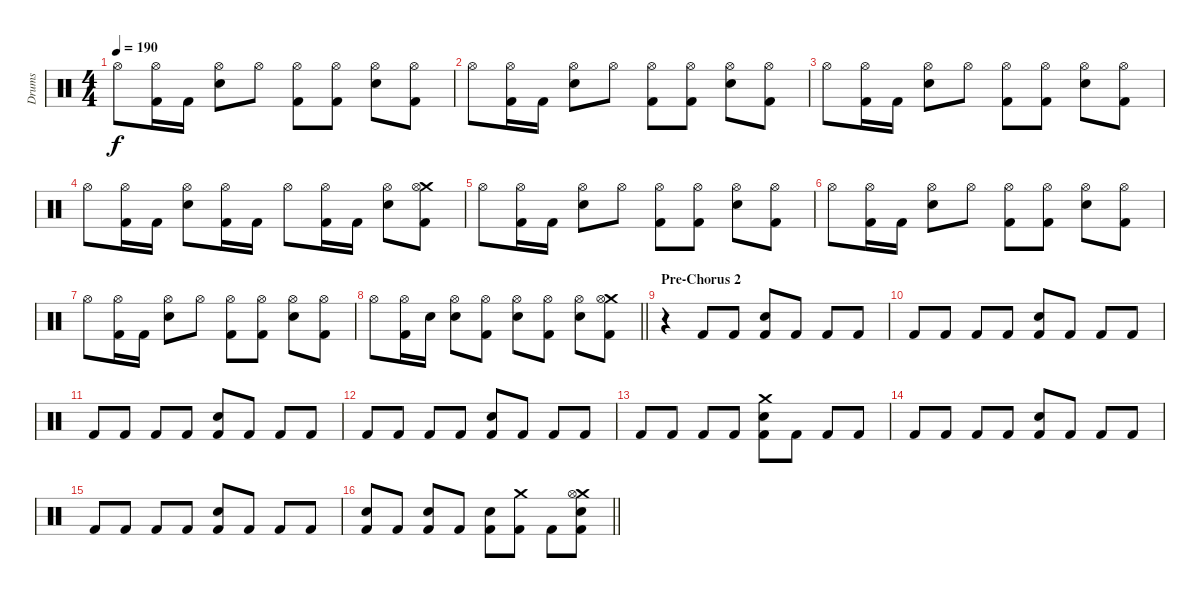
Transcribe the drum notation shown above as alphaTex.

\track ("Drums" "Drums") {instrument percussion}
\staff {score}
\articulation defaults
\ts (4 4)
\tempo 190
\clef neutral
\ks c "Hi-Hat (open)".8{dy f}
("Hi-Hat (open)" "Kick (hit) 2").16 "Kick (hit) 2".16 ("Hi-Hat (open)" "Electric Snare (hit)").8 "Hi-Hat (open)".8 ("Hi-Hat (open)" "Kick (hit) 2").8 ("Hi-Hat (open)" "Kick (hit) 2").8 ("Hi-Hat (open)" "Electric Snare (hit)").8 ("Hi-Hat (open)" "Kick (hit) 2").8 |
"Hi-Hat (open)".8 ("Hi-Hat (open)" "Kick (hit) 2").16 "Kick (hit) 2".16 ("Hi-Hat (open)" "Electric Snare (hit)").8 "Hi-Hat (open)".8 ("Hi-Hat (open)" "Kick (hit) 2").8 ("Hi-Hat (open)" "Kick (hit) 2").8 ("Hi-Hat (open)" "Electric Snare (hit)").8 ("Hi-Hat (open)" "Kick (hit) 2").8 |
"Hi-Hat (open)".8 ("Hi-Hat (open)" "Kick (hit) 2").16 "Kick (hit) 2".16 ("Hi-Hat (open)" "Electric Snare (hit)").8 "Hi-Hat (open)".8 ("Hi-Hat (open)" "Kick (hit) 2").8 ("Hi-Hat (open)" "Kick (hit) 2").8 ("Hi-Hat (open)" "Electric Snare (hit)").8 ("Hi-Hat (open)" "Kick (hit) 2").8 |
"Hi-Hat (open)".8 ("Hi-Hat (open)" "Kick (hit) 2").16 "Kick (hit) 2".16 ("Hi-Hat (open)" "Electric Snare (hit)").8 ("Hi-Hat (open)" "Kick (hit) 2").16 "Kick (hit) 2".16 "Hi-Hat (open)".8 ("Hi-Hat (open)" "Kick (hit) 2").16 "Kick (hit) 2".16 ("Hi-Hat (open)" "Electric Snare (hit)").8 ("Crash medium (hit)" "Hi-Hat (open)" "Kick (hit) 2").8 |
"Hi-Hat (open)".8 ("Hi-Hat (open)" "Kick (hit) 2").16 "Kick (hit) 2".16 ("Hi-Hat (open)" "Electric Snare (hit)").8 "Hi-Hat (open)".8 ("Hi-Hat (open)" "Kick (hit) 2").8 ("Hi-Hat (open)" "Kick (hit) 2").8 ("Hi-Hat (open)" "Electric Snare (hit)").8 ("Hi-Hat (open)" "Kick (hit) 2").8 |
"Hi-Hat (open)".8 ("Hi-Hat (open)" "Kick (hit) 2").16 "Kick (hit) 2".16 ("Hi-Hat (open)" "Electric Snare (hit)").8 "Hi-Hat (open)".8 ("Hi-Hat (open)" "Kick (hit) 2").8 ("Hi-Hat (open)" "Kick (hit) 2").8 ("Hi-Hat (open)" "Electric Snare (hit)").8 ("Hi-Hat (open)" "Kick (hit) 2").8 |
"Hi-Hat (open)".8 ("Hi-Hat (open)" "Kick (hit) 2").16 "Kick (hit) 2".16 ("Hi-Hat (open)" "Electric Snare (hit)").8 "Hi-Hat (open)".8 ("Hi-Hat (open)" "Kick (hit) 2").8 ("Hi-Hat (open)" "Kick (hit) 2").8 ("Hi-Hat (open)" "Electric Snare (hit)").8 ("Hi-Hat (open)" "Kick (hit) 2").8 |
\barLineRight lightlight "Hi-Hat (open)".8
("Hi-Hat (open)" "Kick (hit) 2").16 "Electric Snare (hit)".16 ("Hi-Hat (open)" "Electric Snare (hit)").8 ("Hi-Hat (open)" "Kick (hit) 2").8 ("Hi-Hat (open)" "Electric Snare (hit)").8 ("Hi-Hat (open)" "Kick (hit) 2").8 ("Hi-Hat (open)" "Electric Snare (hit)").8 ("Crash medium (hit)" "Hi-Hat (open)" "Kick (hit) 2").8 |
\section ("" "Pre-Chorus 2")
r.4 "Kick (hit) 2".8 "Kick (hit) 2".8 ("Kick (hit) 2" "Electric Snare (hit)").8 "Kick (hit) 2".8 "Kick (hit) 2".8 "Kick (hit) 2".8 |
"Kick (hit) 2".8 "Kick (hit) 2".8 "Kick (hit) 2".8 "Kick (hit) 2".8 ("Kick (hit) 2" "Electric Snare (hit)").8 "Kick (hit) 2".8 "Kick (hit) 2".8 "Kick (hit) 2".8 |
"Kick (hit) 2".8 "Kick (hit) 2".8 "Kick (hit) 2".8 "Kick (hit) 2".8 ("Kick (hit) 2" "Electric Snare (hit)").8 "Kick (hit) 2".8 "Kick (hit) 2".8 "Kick (hit) 2".8 |
"Kick (hit) 2".8 "Kick (hit) 2".8 "Kick (hit) 2".8 "Kick (hit) 2".8 ("Kick (hit) 2" "Electric Snare (hit)").8 "Kick (hit) 2".8 "Kick (hit) 2".8 "Kick (hit) 2".8 |
"Kick (hit) 2".8 "Kick (hit) 2".8 "Kick (hit) 2".8 "Kick (hit) 2".8 ("Crash medium (hit)" "Kick (hit) 2" "Electric Snare (hit)").8 "Kick (hit) 2".8 "Kick (hit) 2".8 "Kick (hit) 2".8 |
"Kick (hit) 2".8 "Kick (hit) 2".8 "Kick (hit) 2".8 "Kick (hit) 2".8 ("Kick (hit) 2" "Electric Snare (hit)").8 "Kick (hit) 2".8 "Kick (hit) 2".8 "Kick (hit) 2".8 |
"Kick (hit) 2".8 "Kick (hit) 2".8 "Kick (hit) 2".8 "Kick (hit) 2".8 ("Kick (hit) 2" "Electric Snare (hit)").8 "Kick (hit) 2".8 "Kick (hit) 2".8 "Kick (hit) 2".8 |
\barLineRight lightlight
("Kick (hit) 2" "Electric Snare (hit)").8 "Kick (hit) 2".8 ("Kick (hit) 2" "Electric Snare (hit)").8 "Kick (hit) 2".8 ("Kick (hit) 2" "Electric Snare (hit)").8 ("Crash medium (hit)" "Kick (hit) 2").8 "Kick (hit) 2".8 ("Crash medium (hit)" "Hi-Hat (open)" "Kick (hit) 2" "Electric Snare (hit)").8
